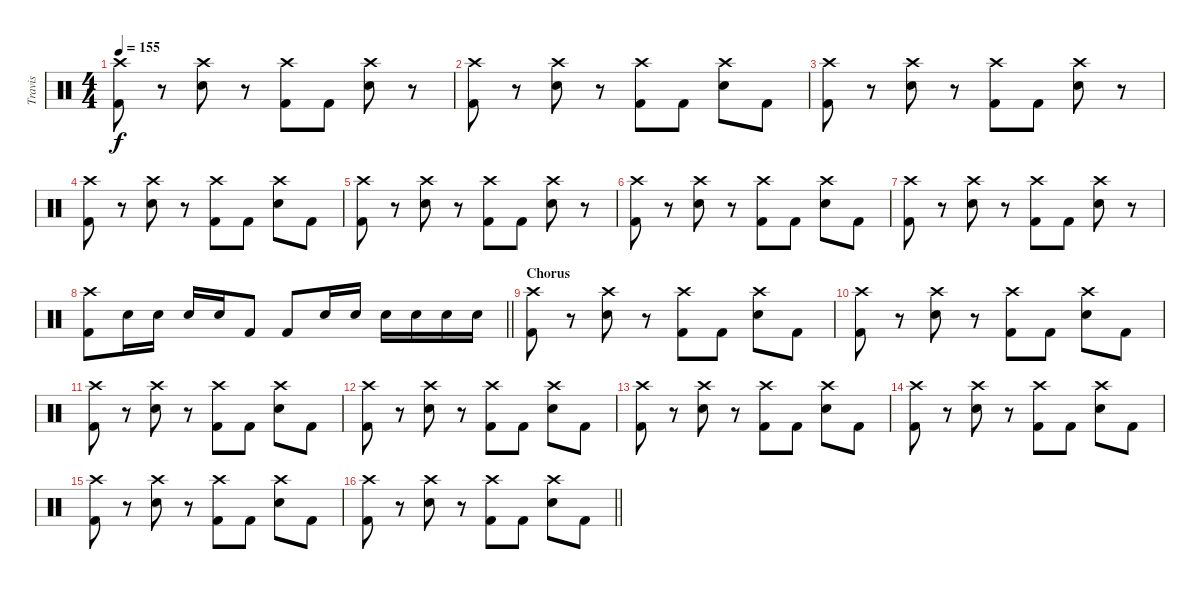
\track ("Travis" "Travis") {instrument percussion}
\staff {score}
\articulation defaults
\ts (4 4)
\tempo 155
\clef neutral
\ks c
("Crash high (hit)" "Kick (hit) 2").8{dy f} r.8 ("Crash high (hit)" "Electric Snare (hit)").8 r.8 ("Crash high (hit)" "Kick (hit) 2").8 "Kick (hit) 2".8 ("Crash high (hit)" "Electric Snare (hit)").8 r.8 |
("Crash high (hit)" "Kick (hit) 2").8 r.8 ("Crash high (hit)" "Electric Snare (hit)").8 r.8 ("Crash high (hit)" "Kick (hit) 2").8 "Kick (hit) 2".8 ("Crash high (hit)" "Electric Snare (hit)").8 "Kick (hit) 2".8 |
("Crash high (hit)" "Kick (hit) 2").8 r.8 ("Crash high (hit)" "Electric Snare (hit)").8 r.8 ("Crash high (hit)" "Kick (hit) 2").8 "Kick (hit) 2".8 ("Crash high (hit)" "Electric Snare (hit)").8 r.8 |
("Crash high (hit)" "Kick (hit) 2").8 r.8 ("Crash high (hit)" "Electric Snare (hit)").8 r.8 ("Crash high (hit)" "Kick (hit) 2").8 "Kick (hit) 2".8 ("Crash high (hit)" "Electric Snare (hit)").8 "Kick (hit) 2".8 |
("Crash high (hit)" "Kick (hit) 2").8 r.8 ("Crash high (hit)" "Electric Snare (hit)").8 r.8 ("Crash high (hit)" "Kick (hit) 2").8 "Kick (hit) 2".8 ("Crash high (hit)" "Electric Snare (hit)").8 r.8 |
("Crash high (hit)" "Kick (hit) 2").8 r.8 ("Crash high (hit)" "Electric Snare (hit)").8 r.8 ("Crash high (hit)" "Kick (hit) 2").8 "Kick (hit) 2".8 ("Crash high (hit)" "Electric Snare (hit)").8 "Kick (hit) 2".8 |
("Crash high (hit)" "Kick (hit) 2").8 r.8 ("Crash high (hit)" "Electric Snare (hit)").8 r.8 ("Crash high (hit)" "Kick (hit) 2").8 "Kick (hit) 2".8 ("Crash high (hit)" "Electric Snare (hit)").8 r.8 |
\barLineRight lightlight
("Crash high (hit)" "Kick (hit) 2").8 "Electric Snare (hit)".16 "Electric Snare (hit)".16 "Electric Snare (hit)".16 "Electric Snare (hit)".16 "Kick (hit) 2".8 "Kick (hit) 2".8 "Electric Snare (hit)".16 "Electric Snare (hit)".16 "Electric Snare (hit)".16 "Electric Snare (hit)".16 "Electric Snare (hit)".16 "Electric Snare (hit)".16 |
\section ("" "Chorus")
("Crash high (hit)" "Kick (hit) 2").8 r.8 ("Crash high (hit)" "Electric Snare (hit)").8 r.8 ("Crash high (hit)" "Kick (hit) 2").8 "Kick (hit) 2".8 ("Crash high (hit)" "Electric Snare (hit)").8 "Kick (hit) 2".8 |
("Crash high (hit)" "Kick (hit) 2").8 r.8 ("Crash high (hit)" "Electric Snare (hit)").8 r.8 ("Crash high (hit)" "Kick (hit) 2").8 "Kick (hit) 2".8 ("Crash high (hit)" "Electric Snare (hit)").8 "Kick (hit) 2".8 |
("Crash high (hit)" "Kick (hit) 2").8 r.8 ("Crash high (hit)" "Electric Snare (hit)").8 r.8 ("Crash high (hit)" "Kick (hit) 2").8 "Kick (hit) 2".8 ("Crash high (hit)" "Electric Snare (hit)").8 "Kick (hit) 2".8 |
("Crash high (hit)" "Kick (hit) 2").8 r.8 ("Crash high (hit)" "Electric Snare (hit)").8 r.8 ("Crash high (hit)" "Kick (hit) 2").8 "Kick (hit) 2".8 ("Crash high (hit)" "Electric Snare (hit)").8 "Kick (hit) 2".8 |
("Crash high (hit)" "Kick (hit) 2").8 r.8 ("Crash high (hit)" "Electric Snare (hit)").8 r.8 ("Crash high (hit)" "Kick (hit) 2").8 "Kick (hit) 2".8 ("Crash high (hit)" "Electric Snare (hit)").8 "Kick (hit) 2".8 |
("Crash high (hit)" "Kick (hit) 2").8 r.8 ("Crash high (hit)" "Electric Snare (hit)").8 r.8 ("Crash high (hit)" "Kick (hit) 2").8 "Kick (hit) 2".8 ("Crash high (hit)" "Electric Snare (hit)").8 "Kick (hit) 2".8 |
("Crash high (hit)" "Kick (hit) 2").8 r.8 ("Crash high (hit)" "Electric Snare (hit)").8 r.8 ("Crash high (hit)" "Kick (hit) 2").8 "Kick (hit) 2".8 ("Crash high (hit)" "Electric Snare (hit)").8 "Kick (hit) 2".8 |
\barLineRight lightlight
("Crash high (hit)" "Kick (hit) 2").8 r.8 ("Crash high (hit)" "Electric Snare (hit)").8 r.8 ("Crash high (hit)" "Kick (hit) 2").8 "Kick (hit) 2".8 ("Crash high (hit)" "Electric Snare (hit)").8 "Kick (hit) 2".8
